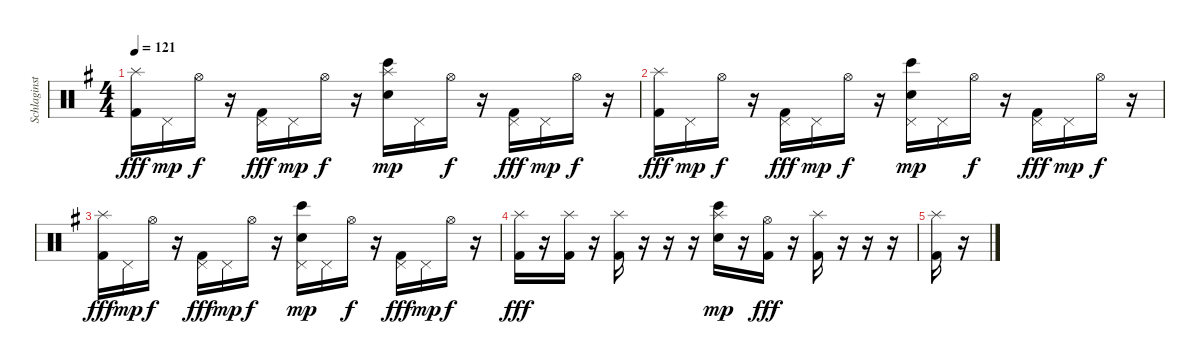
\track ("Schlaginstrumente - Auswahl" "Schlaginst") {instrument percussion}
\staff {score}
\articulation defaults
\ts (4 4)
\tempo 121
\clef neutral
\ks g
("Splash (hit)" "Kick (hit) 2").16{dy fff} "Pedal Hi-Hat (hit)".16{dy mp} "Hi-Hat (open)".16{dy f} r.16 ("Pedal Hi-Hat (hit)" "Kick (hit) 2").16{dy fff} "Pedal Hi-Hat (hit)".16{dy mp} "Hi-Hat (open)".16{dy f} r.16 ("Bongo High (hit)" "Splash (hit)" "Electric Snare (hit)").16{dy mp} "Pedal Hi-Hat (hit)".16 "Hi-Hat (open)".16{dy f} r.16 ("Pedal Hi-Hat (hit)" "Kick (hit) 2").16{dy fff} "Pedal Hi-Hat (hit)".16{dy mp} "Hi-Hat (open)".16{dy f} r.16 |
("Splash (hit)" "Kick (hit) 2").16{dy fff} "Pedal Hi-Hat (hit)".16{dy mp} "Hi-Hat (open)".16{dy f} r.16 ("Pedal Hi-Hat (hit)" "Kick (hit) 2").16{dy fff} "Pedal Hi-Hat (hit)".16{dy mp} "Hi-Hat (open)".16{dy f} r.16 ("Bongo High (hit)" "Pedal Hi-Hat (hit)" "Electric Snare (hit)").16{dy mp} "Pedal Hi-Hat (hit)".16 "Hi-Hat (open)".16{dy f} r.16 ("Pedal Hi-Hat (hit)" "Kick (hit) 2").16{dy fff} "Pedal Hi-Hat (hit)".16{dy mp} "Hi-Hat (open)".16{dy f} r.16 |
("Splash (hit)" "Kick (hit) 2").16{dy fff} "Pedal Hi-Hat (hit)".16{dy mp} "Hi-Hat (open)".16{dy f} r.16 ("Pedal Hi-Hat (hit)" "Kick (hit) 2").16{dy fff} "Pedal Hi-Hat (hit)".16{dy mp} "Hi-Hat (open)".16{dy f} r.16 ("Bongo High (hit)" "Pedal Hi-Hat (hit)" "Electric Snare (hit)").16{dy mp} "Pedal Hi-Hat (hit)".16 "Hi-Hat (open)".16{dy f} r.16 ("Pedal Hi-Hat (hit)" "Kick (hit) 2").16{dy fff} "Pedal Hi-Hat (hit)".16{dy mp} "Hi-Hat (open)".16{dy f} r.16 |
("Splash (hit)" "Kick (hit) 2").16{dy fff} r.16 ("Splash (hit)" "Kick (hit) 2").16 r.16 ("Splash (hit)" "Kick (hit) 2").16 r.16 r.16 r.16 ("Bongo High (hit)" "Splash (hit)" "Electric Snare (hit)").16{dy mp} r.16 ("Hi-Hat (open)" "Kick (hit) 2").16{dy fff} r.16 ("Splash (hit)" "Kick (hit) 2").16 r.16 r.16 r.16 |
("Splash (hit)" "Kick (hit) 2").16 r.16
